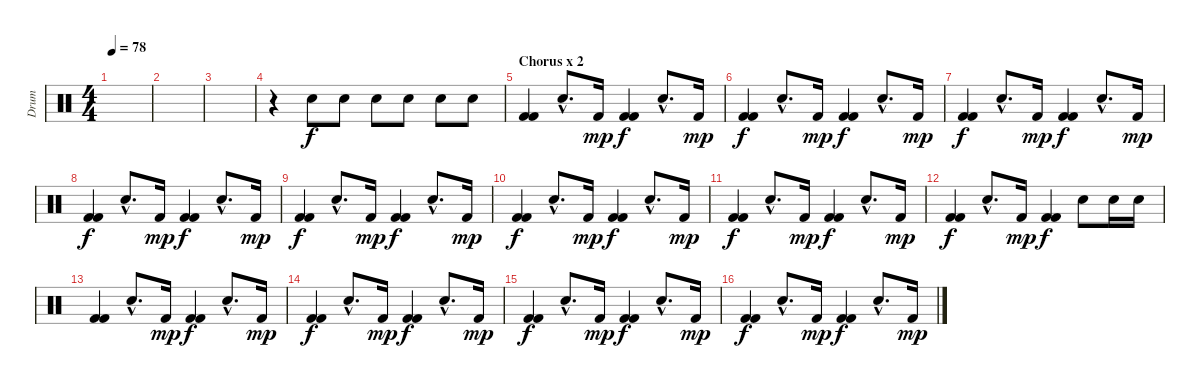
\track ("Drum" "Drum") {instrument percussion}
\staff {score}
\articulation defaults
\ts (4 4)
\tempo 78
\clef neutral
\ks c
|
|
|
r.4 "Electric Snare (hit)".8 "Electric Snare (hit)".8 "Electric Snare (hit)".8 "Electric Snare (hit)".8 "Electric Snare (hit)".8 "Electric Snare (hit)".8 |
\section ("" "Chorus x 2")
("Kick (hit) 2" "Kick (hit) 2").4 "Electric Snare (hit)"{hac}.8{d} "Kick (hit) 2".16{dy mp} ("Kick (hit) 2" "Kick (hit) 2").4{dy f} "Electric Snare (hit)"{hac}.8{d} "Kick (hit) 2".16{dy mp} |
("Kick (hit) 2" "Kick (hit) 2").4{dy f} "Electric Snare (hit)"{hac}.8{d} "Kick (hit) 2".16{dy mp} ("Kick (hit) 2" "Kick (hit) 2").4{dy f} "Electric Snare (hit)"{hac}.8{d} "Kick (hit) 2".16{dy mp} |
("Kick (hit) 2" "Kick (hit) 2").4{dy f} "Electric Snare (hit)"{hac}.8{d} "Kick (hit) 2".16{dy mp} ("Kick (hit) 2" "Kick (hit) 2").4{dy f} "Electric Snare (hit)"{hac}.8{d} "Kick (hit) 2".16{dy mp} |
("Kick (hit) 2" "Kick (hit) 2").4{dy f} "Electric Snare (hit)"{hac}.8{d} "Kick (hit) 2".16{dy mp} ("Kick (hit) 2" "Kick (hit) 2").4{dy f} "Electric Snare (hit)"{hac}.8{d} "Kick (hit) 2".16{dy mp} |
("Kick (hit) 2" "Kick (hit) 2").4{dy f} "Electric Snare (hit)"{hac}.8{d} "Kick (hit) 2".16{dy mp} ("Kick (hit) 2" "Kick (hit) 2").4{dy f} "Electric Snare (hit)"{hac}.8{d} "Kick (hit) 2".16{dy mp} |
("Kick (hit) 2" "Kick (hit) 2").4{dy f} "Electric Snare (hit)"{hac}.8{d} "Kick (hit) 2".16{dy mp} ("Kick (hit) 2" "Kick (hit) 2").4{dy f} "Electric Snare (hit)"{hac}.8{d} "Kick (hit) 2".16{dy mp} |
("Kick (hit) 2" "Kick (hit) 2").4{dy f} "Electric Snare (hit)"{hac}.8{d} "Kick (hit) 2".16{dy mp} ("Kick (hit) 2" "Kick (hit) 2").4{dy f} "Electric Snare (hit)"{hac}.8{d} "Kick (hit) 2".16{dy mp} |
("Kick (hit) 2" "Kick (hit) 2").4{dy f} "Electric Snare (hit)"{hac}.8{d} "Kick (hit) 2".16{dy mp} ("Kick (hit) 2" "Kick (hit) 2").4{dy f} "Electric Snare (hit)".8 "Electric Snare (hit)".16 "Electric Snare (hit)".16 |
("Kick (hit) 2" "Kick (hit) 2").4 "Electric Snare (hit)"{hac}.8{d} "Kick (hit) 2".16{dy mp} ("Kick (hit) 2" "Kick (hit) 2").4{dy f} "Electric Snare (hit)"{hac}.8{d} "Kick (hit) 2".16{dy mp} |
("Kick (hit) 2" "Kick (hit) 2").4{dy f} "Electric Snare (hit)"{hac}.8{d} "Kick (hit) 2".16{dy mp} ("Kick (hit) 2" "Kick (hit) 2").4{dy f} "Electric Snare (hit)"{hac}.8{d} "Kick (hit) 2".16{dy mp} |
("Kick (hit) 2" "Kick (hit) 2").4{dy f} "Electric Snare (hit)"{hac}.8{d} "Kick (hit) 2".16{dy mp} ("Kick (hit) 2" "Kick (hit) 2").4{dy f} "Electric Snare (hit)"{hac}.8{d} "Kick (hit) 2".16{dy mp} |
("Kick (hit) 2" "Kick (hit) 2").4{dy f} "Electric Snare (hit)"{hac}.8{d} "Kick (hit) 2".16{dy mp} ("Kick (hit) 2" "Kick (hit) 2").4{dy f} "Electric Snare (hit)"{hac}.8{d} "Kick (hit) 2".16{dy mp}
